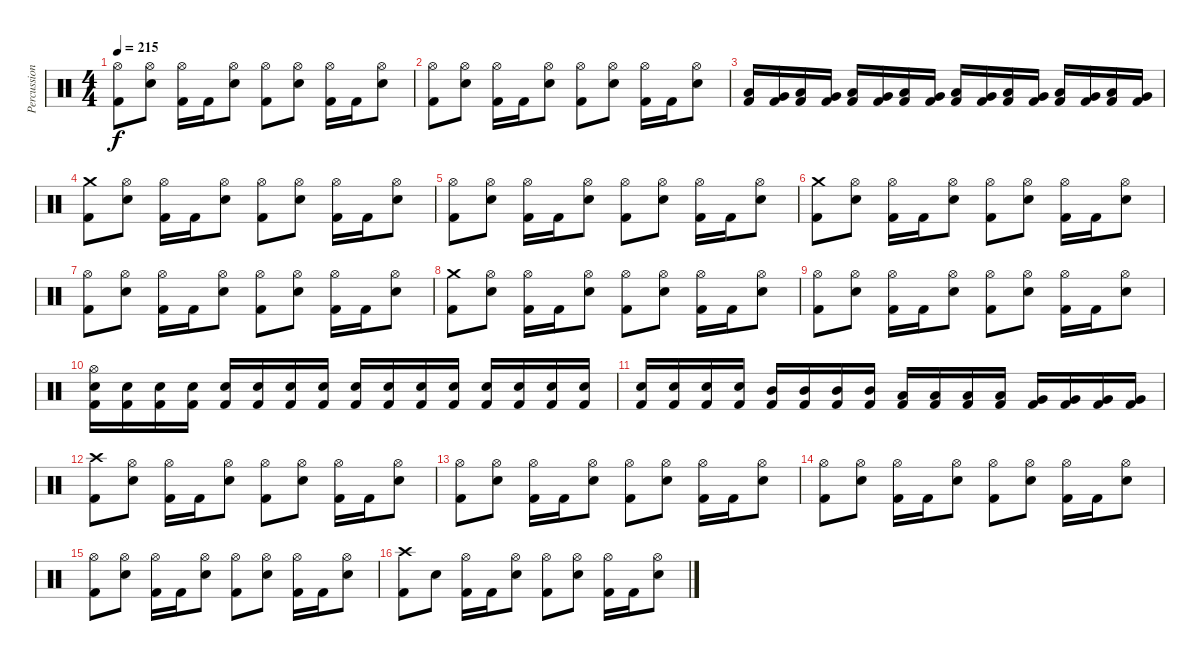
\track ("Percussion" "Percussion") {instrument percussion}
\staff {score}
\articulation defaults
\ts (4 4)
\tempo 215
\clef neutral
\ks c
("Hi-Hat (open)" "Kick (hit) 2").8{dy f} ("Hi-Hat (open)" "Snare (hit) 2").8 ("Hi-Hat (open)" "Kick (hit) 2").16 "Kick (hit) 2".16 ("Hi-Hat (open)" "Snare (hit) 2").8 ("Hi-Hat (open)" "Kick (hit) 2").8 ("Hi-Hat (open)" "Snare (hit) 2").8 ("Hi-Hat (open)" "Kick (hit) 2").16 "Kick (hit) 2".16 ("Hi-Hat (open)" "Snare (hit) 2").8 |
("Hi-Hat (open)" "Kick (hit) 2").8 ("Hi-Hat (open)" "Snare (hit) 2").8 ("Hi-Hat (open)" "Kick (hit) 2").16 "Kick (hit) 2".16 ("Hi-Hat (open)" "Snare (hit) 2").8 ("Hi-Hat (open)" "Kick (hit) 2").8 ("Hi-Hat (open)" "Snare (hit) 2").8 ("Hi-Hat (open)" "Kick (hit) 2").16 "Kick (hit) 2".16 ("Hi-Hat (open)" "Snare (hit) 2").8 |
("Low Tom (hit)" "Kick (hit) 2").16 ("Very Low Tom (hit)" "Kick (hit) 2").16 ("Low Floor Tom (hit)" "Kick (hit) 2").16 ("Very Low Tom (hit)" "Kick (hit) 2").16 ("Low Tom (hit)" "Kick (hit) 2").16 ("Very Low Tom (hit)" "Kick (hit) 2").16 ("Low Floor Tom (hit)" "Kick (hit) 2").16 ("Very Low Tom (hit)" "Kick (hit) 2").16 ("Low Tom (hit)" "Kick (hit) 2").16 ("Very Low Tom (hit)" "Kick (hit) 2").16 ("Low Floor Tom (hit)" "Kick (hit) 2").16 ("Very Low Tom (hit)" "Kick (hit) 2").16 ("Low Tom (hit)" "Kick (hit) 2").16 ("Very Low Tom (hit)" "Kick (hit) 2").16 ("Low Floor Tom (hit)" "Kick (hit) 2").16 ("Very Low Tom (hit)" "Kick (hit) 2").16 |
("Crash medium (hit)" "Kick (hit) 2").8 ("Hi-Hat (open)" "Snare (hit) 2").8 ("Hi-Hat (open)" "Kick (hit) 2").16 "Kick (hit) 2".16 ("Hi-Hat (open)" "Snare (hit) 2").8 ("Hi-Hat (open)" "Kick (hit) 2").8 ("Hi-Hat (open)" "Snare (hit) 2").8 ("Hi-Hat (open)" "Kick (hit) 2").16 "Kick (hit) 2".16 ("Hi-Hat (open)" "Snare (hit) 2").8 |
("Hi-Hat (open)" "Kick (hit) 2").8 ("Hi-Hat (open)" "Snare (hit) 2").8 ("Hi-Hat (open)" "Kick (hit) 2").16 "Kick (hit) 2".16 ("Hi-Hat (open)" "Snare (hit) 2").8 ("Hi-Hat (open)" "Kick (hit) 2").8 ("Hi-Hat (open)" "Snare (hit) 2").8 ("Hi-Hat (open)" "Kick (hit) 2").16 "Kick (hit) 2".16 ("Hi-Hat (open)" "Snare (hit) 2").8 |
("Crash medium (hit)" "Kick (hit) 2").8 ("Hi-Hat (open)" "Snare (hit) 2").8 ("Hi-Hat (open)" "Kick (hit) 2").16 "Kick (hit) 2".16 ("Hi-Hat (open)" "Snare (hit) 2").8 ("Hi-Hat (open)" "Kick (hit) 2").8 ("Hi-Hat (open)" "Snare (hit) 2").8 ("Hi-Hat (open)" "Kick (hit) 2").16 "Kick (hit) 2".16 ("Hi-Hat (open)" "Snare (hit) 2").8 |
("Hi-Hat (open)" "Kick (hit) 2").8 ("Hi-Hat (open)" "Snare (hit) 2").8 ("Hi-Hat (open)" "Kick (hit) 2").16 "Kick (hit) 2".16 ("Hi-Hat (open)" "Snare (hit) 2").8 ("Hi-Hat (open)" "Kick (hit) 2").8 ("Hi-Hat (open)" "Snare (hit) 2").8 ("Hi-Hat (open)" "Kick (hit) 2").16 "Kick (hit) 2".16 ("Hi-Hat (open)" "Snare (hit) 2").8 |
("Crash medium (hit)" "Kick (hit) 2").8 ("Hi-Hat (open)" "Snare (hit) 2").8 ("Hi-Hat (open)" "Kick (hit) 2").16 "Kick (hit) 2".16 ("Hi-Hat (open)" "Snare (hit) 2").8 ("Hi-Hat (open)" "Kick (hit) 2").8 ("Hi-Hat (open)" "Snare (hit) 2").8 ("Hi-Hat (open)" "Kick (hit) 2").16 "Kick (hit) 2".16 ("Hi-Hat (open)" "Snare (hit) 2").8 |
("Hi-Hat (open)" "Kick (hit) 2").8 ("Hi-Hat (open)" "Snare (hit) 2").8 ("Hi-Hat (open)" "Kick (hit) 2").16 "Kick (hit) 2".16 ("Hi-Hat (open)" "Snare (hit) 2").8 ("Hi-Hat (open)" "Kick (hit) 2").8 ("Hi-Hat (open)" "Snare (hit) 2").8 ("Hi-Hat (open)" "Kick (hit) 2").16 "Kick (hit) 2".16 ("Hi-Hat (open)" "Snare (hit) 2").8 |
("Hi-Hat (open)" "Snare (hit) 2" "Kick (hit) 2").16 ("Snare (hit) 2" "Kick (hit) 2").16 ("Snare (hit) 2" "Kick (hit) 2").16 ("Snare (hit) 2" "Kick (hit) 2").16 ("Snare (hit) 2" "Kick (hit) 2").16 ("Snare (hit) 2" "Kick (hit) 2").16 ("Snare (hit) 2" "Kick (hit) 2").16 ("Snare (hit) 2" "Kick (hit) 2").16 ("Snare (hit) 2" "Kick (hit) 2").16 ("Snare (hit) 2" "Kick (hit) 2").16 ("Snare (hit) 2" "Kick (hit) 2").16 ("Snare (hit) 2" "Kick (hit) 2").16 ("Snare (hit) 2" "Kick (hit) 2").16 ("Snare (hit) 2" "Kick (hit) 2").16 ("Snare (hit) 2" "Kick (hit) 2").16 ("Snare (hit) 2" "Kick (hit) 2").16 |
("Snare (hit) 2" "Kick (hit) 2").16 ("Snare (hit) 2" "Kick (hit) 2").16 ("Snare (hit) 2" "Kick (hit) 2").16 ("Snare (hit) 2" "Kick (hit) 2").16 ("Mid Tom (hit)" "Kick (hit) 2").16 ("Mid Tom (hit)" "Kick (hit) 2").16 ("Mid Tom (hit)" "Kick (hit) 2").16 ("Mid Tom (hit)" "Kick (hit) 2").16 ("Low Tom (hit)" "Kick (hit) 2").16 ("Low Tom (hit)" "Kick (hit) 2").16 ("Low Tom (hit)" "Kick (hit) 2").16 ("Low Tom (hit)" "Kick (hit) 2").16 ("Very Low Tom (hit)" "Kick (hit) 2").16 ("Very Low Tom (hit)" "Kick (hit) 2").16 ("Very Low Tom (hit)" "Kick (hit) 2").16 ("Very Low Tom (hit)" "Kick (hit) 2").16 |
("Crash high (hit)" "Kick (hit) 2").8 ("Hi-Hat (open)" "Snare (hit) 2").8 ("Hi-Hat (open)" "Kick (hit) 2").16 "Kick (hit) 2".16 ("Hi-Hat (open)" "Snare (hit) 2").8 ("Hi-Hat (open)" "Kick (hit) 2").8 ("Hi-Hat (open)" "Snare (hit) 2").8 ("Hi-Hat (open)" "Kick (hit) 2").16 "Kick (hit) 2".16 ("Hi-Hat (open)" "Snare (hit) 2").8 |
("Hi-Hat (open)" "Kick (hit) 2").8 ("Hi-Hat (open)" "Snare (hit) 2").8 ("Hi-Hat (open)" "Kick (hit) 2").16 "Kick (hit) 2".16 ("Hi-Hat (open)" "Snare (hit) 2").8 ("Hi-Hat (open)" "Kick (hit) 2").8 ("Hi-Hat (open)" "Snare (hit) 2").8 ("Hi-Hat (open)" "Kick (hit) 2").16 "Kick (hit) 2".16 ("Hi-Hat (open)" "Snare (hit) 2").8 |
("Hi-Hat (open)" "Kick (hit) 2").8 ("Hi-Hat (open)" "Snare (hit) 2").8 ("Hi-Hat (open)" "Kick (hit) 2").16 "Kick (hit) 2".16 ("Hi-Hat (open)" "Snare (hit) 2").8 ("Hi-Hat (open)" "Kick (hit) 2").8 ("Hi-Hat (open)" "Snare (hit) 2").8 ("Hi-Hat (open)" "Kick (hit) 2").16 "Kick (hit) 2".16 ("Hi-Hat (open)" "Snare (hit) 2").8 |
("Hi-Hat (open)" "Kick (hit) 2").8 ("Hi-Hat (open)" "Snare (hit) 2").8 ("Hi-Hat (open)" "Kick (hit) 2").16 "Kick (hit) 2".16 ("Hi-Hat (open)" "Snare (hit) 2").8 ("Hi-Hat (open)" "Kick (hit) 2").8 ("Hi-Hat (open)" "Snare (hit) 2").8 ("Hi-Hat (open)" "Kick (hit) 2").16 "Kick (hit) 2".16 ("Hi-Hat (open)" "Snare (hit) 2").8 |
("Crash high (hit)" "Kick (hit) 2").8 "Snare (hit) 2".8 ("Hi-Hat (open)" "Kick (hit) 2").16 "Kick (hit) 2".16 ("Hi-Hat (open)" "Snare (hit) 2").8 ("Hi-Hat (open)" "Kick (hit) 2").8 ("Hi-Hat (open)" "Snare (hit) 2").8 ("Hi-Hat (open)" "Kick (hit) 2").16 "Kick (hit) 2".16 ("Hi-Hat (open)" "Snare (hit) 2").8
